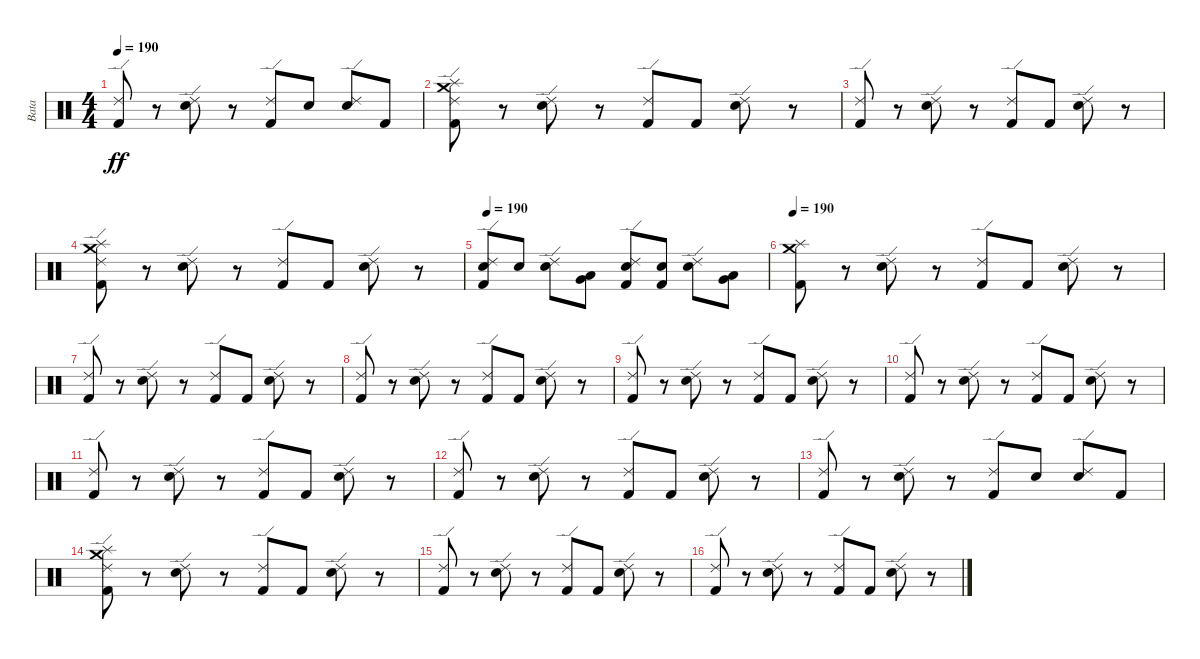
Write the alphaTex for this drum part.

\track ("Bata" "Bata") {instrument percussion}
\staff {score}
\articulation defaults
\ts (4 4)
\tempo 190
\clef neutral
\ks c
("Kick (hit) 2" "Ride (edge) 2").8{dy ff} r.8 ("Ride (edge) 2" "Snare (hit) 2").8 r.8 ("Ride (edge) 2" "Kick (hit) 2").8 "Snare (hit) 2".8 ("Snare (hit) 2" "Ride (edge) 2").8 "Kick (hit) 2".8 |
("Splash (hit)" "Crash medium (hit)" "Ride (edge) 2" "Kick (hit) 2").8 r.8 ("Ride (edge) 2" "Snare (hit) 2").8 r.8 ("Kick (hit) 2" "Ride (edge) 2").8 "Kick (hit) 2".8 ("Snare (hit) 2" "Ride (edge) 2").8 r.8 |
("Ride (edge) 2" "Kick (hit) 2").8 r.8 ("Snare (hit) 2" "Ride (edge) 2").8 r.8 ("Kick (hit) 2" "Ride (edge) 2").8 "Kick (hit) 2".8 ("Ride (edge) 2" "Snare (hit) 2").8 r.8 |
("Crash medium (hit)" "Splash (hit)" "Ride (edge) 2" "Kick (hit) 2").8 r.8 ("Snare (hit) 2" "Ride (edge) 2").8 r.8 ("Kick (hit) 2" "Ride (edge) 2").8 "Kick (hit) 2".8 ("Ride (edge) 2" "Snare (hit) 2").8 r.8 |
\tempo 190
("Kick (hit) 2" "Ride (edge) 2" "Snare (hit) 2").8 "Snare (hit) 2".8 ("Snare (hit) 2" "Ride (edge) 2").8 ("Low Tom (hit)" "Very Low Tom (hit)").8 ("Snare (hit) 2" "Ride (edge) 2" "Kick (hit) 2").8 ("Snare (hit) 2" "Kick (hit) 2").8 ("Ride (edge) 2" "Snare (hit) 2").8 ("Very Low Tom (hit)" "Low Tom (hit)").8 |
\tempo 190
("Crash medium (hit)" "Splash (hit)" "Kick (hit) 2").8 r.8 ("Ride (edge) 2" "Snare (hit) 2").8 r.8 ("Kick (hit) 2" "Ride (edge) 2").8 "Kick (hit) 2".8 ("Snare (hit) 2" "Ride (edge) 2").8 r.8 |
("Ride (edge) 2" "Kick (hit) 2").8 r.8 ("Snare (hit) 2" "Ride (edge) 2").8 r.8 ("Kick (hit) 2" "Ride (edge) 2").8 "Kick (hit) 2".8 ("Ride (edge) 2" "Snare (hit) 2").8 r.8 |
("Ride (edge) 2" "Kick (hit) 2").8 r.8 ("Snare (hit) 2" "Ride (edge) 2").8 r.8 ("Kick (hit) 2" "Ride (edge) 2").8 "Kick (hit) 2".8 ("Ride (edge) 2" "Snare (hit) 2").8 r.8 |
("Kick (hit) 2" "Ride (edge) 2").8 r.8 ("Snare (hit) 2" "Ride (edge) 2").8 r.8 ("Ride (edge) 2" "Kick (hit) 2").8 "Kick (hit) 2".8 ("Ride (edge) 2" "Snare (hit) 2").8 r.8 |
("Kick (hit) 2" "Ride (edge) 2").8 r.8 ("Ride (edge) 2" "Snare (hit) 2").8 r.8 ("Ride (edge) 2" "Kick (hit) 2").8 "Kick (hit) 2".8 ("Snare (hit) 2" "Ride (edge) 2").8 r.8 |
("Kick (hit) 2" "Ride (edge) 2").8 r.8 ("Ride (edge) 2" "Snare (hit) 2").8 r.8 ("Kick (hit) 2" "Ride (edge) 2").8 "Kick (hit) 2".8 ("Snare (hit) 2" "Ride (edge) 2").8 r.8 |
("Ride (edge) 2" "Kick (hit) 2").8 r.8 ("Ride (edge) 2" "Snare (hit) 2").8 r.8 ("Kick (hit) 2" "Ride (edge) 2").8 "Kick (hit) 2".8 ("Snare (hit) 2" "Ride (edge) 2").8 r.8 |
("Ride (edge) 2" "Kick (hit) 2").8 r.8 ("Snare (hit) 2" "Ride (edge) 2").8 r.8 ("Kick (hit) 2" "Ride (edge) 2").8 "Snare (hit) 2".8 ("Ride (edge) 2" "Snare (hit) 2").8 "Kick (hit) 2".8 |
("Splash (hit)" "Crash medium (hit)" "Ride (edge) 2" "Kick (hit) 2").8 r.8 ("Snare (hit) 2" "Ride (edge) 2").8 r.8 ("Ride (edge) 2" "Kick (hit) 2").8 "Kick (hit) 2".8 ("Ride (edge) 2" "Snare (hit) 2").8 r.8 |
("Kick (hit) 2" "Ride (edge) 2").8 r.8 ("Snare (hit) 2" "Ride (edge) 2").8 r.8 ("Ride (edge) 2" "Kick (hit) 2").8 "Kick (hit) 2".8 ("Snare (hit) 2" "Ride (edge) 2").8 r.8 |
("Kick (hit) 2" "Ride (edge) 2").8 r.8 ("Ride (edge) 2" "Snare (hit) 2").8 r.8 ("Ride (edge) 2" "Kick (hit) 2").8 "Kick (hit) 2".8 ("Snare (hit) 2" "Ride (edge) 2").8 r.8
